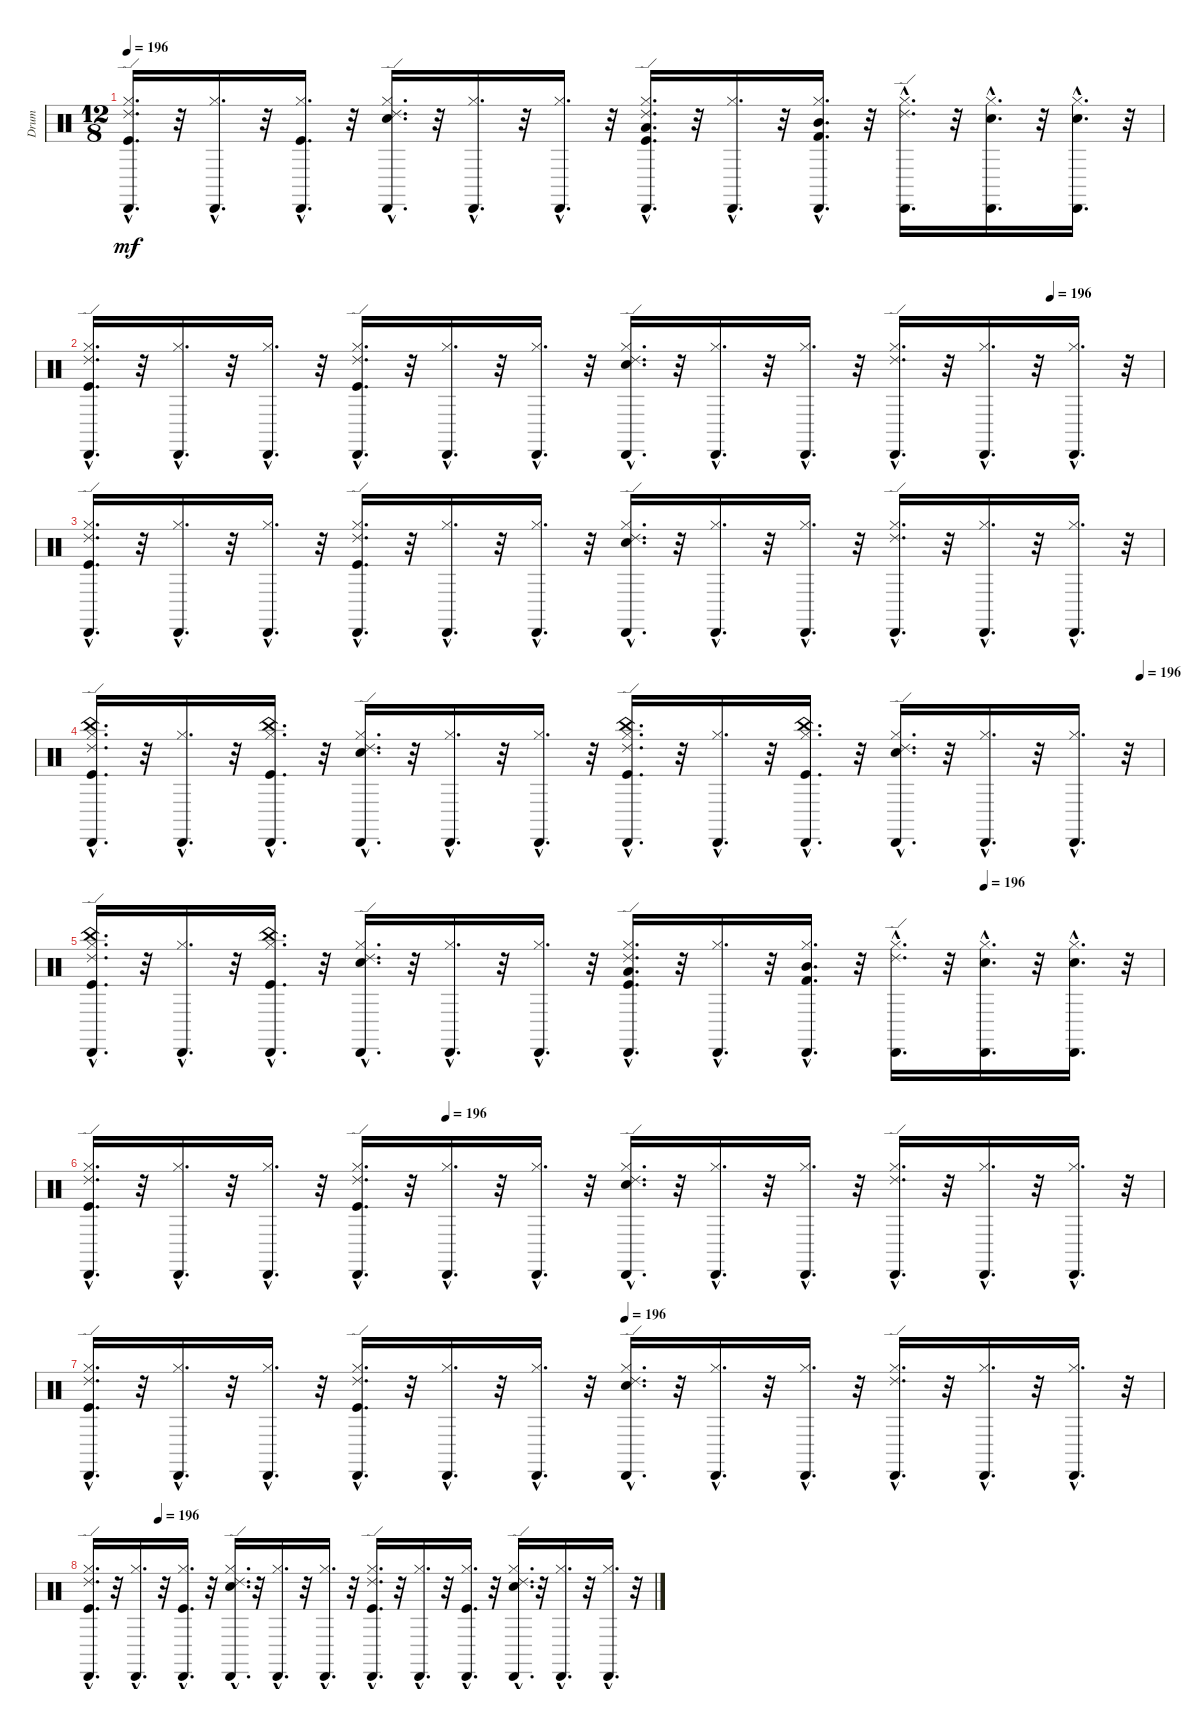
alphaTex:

\track ("Drum" "Drum") {instrument percussion}
\staff {score}
\articulation defaults
\ts (12 8)
\tempo 196
\clef neutral
\ks c
("Hi-Hat (closed)"{hac} "Kick (hit)"{hac} "Cabasa (hit)"{hac} "Ride (edge) 2"{hac}).16{d dy mf} r.32 ("Hi-Hat (closed)"{hac} "Cabasa (hit)"{hac}).16{d} r.32 ("Kick (hit)"{hac} "Hi-Hat (closed)"{hac} "Cabasa (hit)"{hac}).16{d} r.32 ("Snare (hit) 2"{hac} "Hi-Hat (closed)"{hac} "Cabasa (hit)"{hac} "Ride (edge) 2"{hac}).16{d} r.32 ("Hi-Hat (closed)"{hac} "Cabasa (hit)"{hac}).16{d} r.32 ("Hi-Hat (closed)"{hac} "Cabasa (hit)"{hac}).16{d} r.32 ("Low Tom (hit)"{hac} "Kick (hit)"{hac} "Hi-Hat (closed)"{hac} "Cabasa (hit)"{hac} "Ride (edge) 2"{hac}).16{d} r.32 ("Hi-Hat (closed)"{hac} "Cabasa (hit)"{hac}).16{d} r.32 ("Mid Tom (hit)"{hac} "Kick (hit) 2"{hac} "Hi-Hat (closed)"{hac} "Cabasa (hit)"{hac}).16{d} r.32 ("Hi-Hat (closed)"{hac} "Cabasa (hit)"{hac} "Ride (edge) 2"{hac}).16{d} r.32 ("Snare (hit) 2"{hac} "Hi-Hat (closed)"{hac} "Cabasa (hit)"{hac}).16{d} r.32 ("Snare (hit) 2"{hac} "Hi-Hat (closed)"{hac} "Cabasa (hit)"{hac}).16{d} r.32 |
\tempo (196 0.8958333333333334)
("Ride (edge) 2"{hac} "Cabasa (hit)"{hac} "Kick (hit)"{hac} "Hi-Hat (closed)"{hac}).16{d} r.32 ("Cabasa (hit)"{hac} "Hi-Hat (closed)"{hac}).16{d} r.32 ("Cabasa (hit)"{hac} "Hi-Hat (closed)"{hac}).16{d} r.32 ("Ride (edge) 2"{hac} "Cabasa (hit)"{hac} "Kick (hit)"{hac} "Hi-Hat (closed)"{hac}).16{d} r.32 ("Cabasa (hit)"{hac} "Hi-Hat (closed)"{hac}).16{d} r.32 ("Cabasa (hit)"{hac} "Hi-Hat (closed)"{hac}).16{d} r.32 ("Ride (edge) 2"{hac} "Cabasa (hit)"{hac} "Snare (hit) 2"{hac} "Hi-Hat (closed)"{hac}).16{d} r.32 ("Cabasa (hit)"{hac} "Hi-Hat (closed)"{hac}).16{d} r.32 ("Cabasa (hit)"{hac} "Hi-Hat (closed)"{hac}).16{d} r.32 ("Ride (edge) 2"{hac} "Cabasa (hit)"{hac} "Hi-Hat (closed)"{hac}).16{d} r.32 ("Cabasa (hit)"{hac} "Hi-Hat (closed)"{hac}).16{d} r.32 ("Cabasa (hit)"{hac} "Hi-Hat (closed)"{hac}).16{d} r.32 |
("Ride (edge) 2"{hac} "Hi-Hat (closed)"{hac} "Cabasa (hit)"{hac} "Kick (hit)"{hac}).16{d} r.32 ("Cabasa (hit)"{hac} "Hi-Hat (closed)"{hac}).16{d} r.32 ("Hi-Hat (closed)"{hac} "Cabasa (hit)"{hac}).16{d} r.32 ("Cabasa (hit)"{hac} "Hi-Hat (closed)"{hac} "Ride (edge) 2"{hac} "Kick (hit)"{hac}).16{d} r.32 ("Hi-Hat (closed)"{hac} "Cabasa (hit)"{hac}).16{d} r.32 ("Hi-Hat (closed)"{hac} "Cabasa (hit)"{hac}).16{d} r.32 ("Ride (edge) 2"{hac} "Cabasa (hit)"{hac} "Snare (hit) 2"{hac} "Hi-Hat (closed)"{hac}).16{d} r.32 ("Hi-Hat (closed)"{hac} "Cabasa (hit)"{hac}).16{d} r.32 ("Cabasa (hit)"{hac} "Hi-Hat (closed)"{hac}).16{d} r.32 ("Ride (edge) 2"{hac} "Cabasa (hit)"{hac} "Hi-Hat (closed)"{hac}).16{d} r.32 ("Hi-Hat (closed)"{hac} "Cabasa (hit)"{hac}).16{d} r.32 ("Hi-Hat (closed)"{hac} "Cabasa (hit)"{hac}).16{d} r.32 |
\tempo (196 0.9791666666666666)
("Hi-Hat (closed)"{hac} "Kick (hit)"{hac} "Ride (edge) 2"{hac} "Cabasa (hit)"{hac} "China (hit)"{hac}).16{d} r.32 ("Hi-Hat (closed)"{hac} "Cabasa (hit)"{hac}).16{d} r.32 ("Cabasa (hit)"{hac} "Kick (hit)"{hac} "China (hit)"{hac} "Hi-Hat (closed)"{hac}).16{d} r.32 ("Snare (hit) 2"{hac} "Hi-Hat (closed)"{hac} "Cabasa (hit)"{hac} "Ride (edge) 2"{hac}).16{d} r.32 ("Hi-Hat (closed)"{hac} "Cabasa (hit)"{hac}).16{d} r.32 ("Hi-Hat (closed)"{hac} "Cabasa (hit)"{hac}).16{d} r.32 ("Hi-Hat (closed)"{hac} "Kick (hit)"{hac} "Cabasa (hit)"{hac} "China (hit)"{hac} "Ride (edge) 2"{hac}).16{d} r.32 ("Cabasa (hit)"{hac} "Hi-Hat (closed)"{hac}).16{d} r.32 ("Cabasa (hit)"{hac} "Kick (hit)"{hac} "China (hit)"{hac} "Hi-Hat (closed)"{hac}).16{d} r.32 ("Snare (hit) 2"{hac} "Hi-Hat (closed)"{hac} "Cabasa (hit)"{hac} "Ride (edge) 2"{hac}).16{d} r.32 ("Hi-Hat (closed)"{hac} "Cabasa (hit)"{hac}).16{d} r.32 ("Cabasa (hit)"{hac} "Hi-Hat (closed)"{hac}).16{d} r.32 |
\tempo (196 0.8333333333333334)
("Cabasa (hit)"{hac} "Ride (edge) 2"{hac} "Kick (hit)"{hac} "Hi-Hat (closed)"{hac} "China (hit)"{hac}).16{d} r.32 ("Cabasa (hit)"{hac} "Hi-Hat (closed)"{hac}).16{d} r.32 ("China (hit)"{hac} "Cabasa (hit)"{hac} "Kick (hit)"{hac} "Hi-Hat (closed)"{hac}).16{d} r.32 ("Snare (hit) 2"{hac} "Cabasa (hit)"{hac} "Hi-Hat (closed)"{hac} "Ride (edge) 2"{hac}).16{d} r.32 ("Cabasa (hit)"{hac} "Hi-Hat (closed)"{hac}).16{d} r.32 ("Hi-Hat (closed)"{hac} "Cabasa (hit)"{hac}).16{d} r.32 ("Low Tom (hit)"{hac} "Cabasa (hit)"{hac} "Hi-Hat (closed)"{hac} "Kick (hit)"{hac} "Ride (edge) 2"{hac}).16{d} r.32 ("Hi-Hat (closed)"{hac} "Cabasa (hit)"{hac}).16{d} r.32 ("Cabasa (hit)"{hac} "Mid Tom (hit)"{hac} "Hi-Hat (closed)"{hac} "Kick (hit) 2"{hac}).16{d} r.32 ("Hi-Hat (closed)"{hac} "Ride (edge) 2"{hac} "Cabasa (hit)"{hac}).16{d} r.32 ("Hi-Hat (closed)"{hac} "Snare (hit) 2"{hac} "Cabasa (hit)"{hac}).16{d} r.32 ("Hi-Hat (closed)"{hac} "Snare (hit) 2"{hac} "Cabasa (hit)"{hac}).16{d} r.32 |
\tempo (196 0.3333333333333333)
("Hi-Hat (closed)"{hac} "Kick (hit)"{hac} "Cabasa (hit)"{hac} "Ride (edge) 2"{hac}).16{d} r.32 ("Hi-Hat (closed)"{hac} "Cabasa (hit)"{hac}).16{d} r.32 ("Hi-Hat (closed)"{hac} "Cabasa (hit)"{hac}).16{d} r.32 ("Hi-Hat (closed)"{hac} "Kick (hit)"{hac} "Cabasa (hit)"{hac} "Ride (edge) 2"{hac}).16{d} r.32 ("Hi-Hat (closed)"{hac} "Cabasa (hit)"{hac}).16{d} r.32 ("Hi-Hat (closed)"{hac} "Cabasa (hit)"{hac}).16{d} r.32 ("Hi-Hat (closed)"{hac} "Snare (hit) 2"{hac} "Cabasa (hit)"{hac} "Ride (edge) 2"{hac}).16{d} r.32 ("Hi-Hat (closed)"{hac} "Cabasa (hit)"{hac}).16{d} r.32 ("Hi-Hat (closed)"{hac} "Cabasa (hit)"{hac}).16{d} r.32 ("Hi-Hat (closed)"{hac} "Cabasa (hit)"{hac} "Ride (edge) 2"{hac}).16{d} r.32 ("Hi-Hat (closed)"{hac} "Cabasa (hit)"{hac}).16{d} r.32 ("Hi-Hat (closed)"{hac} "Cabasa (hit)"{hac}).16{d} r.32 |
\tempo (196 0.5)
("Ride (edge) 2"{hac} "Hi-Hat (closed)"{hac} "Kick (hit)"{hac} "Cabasa (hit)"{hac}).16{d} r.32 ("Cabasa (hit)"{hac} "Hi-Hat (closed)"{hac}).16{d} r.32 ("Cabasa (hit)"{hac} "Hi-Hat (closed)"{hac}).16{d} r.32 ("Kick (hit)"{hac} "Ride (edge) 2"{hac} "Cabasa (hit)"{hac} "Hi-Hat (closed)"{hac}).16{d} r.32 ("Cabasa (hit)"{hac} "Hi-Hat (closed)"{hac}).16{d} r.32 ("Cabasa (hit)"{hac} "Hi-Hat (closed)"{hac}).16{d} r.32 ("Cabasa (hit)"{hac} "Ride (edge) 2"{hac} "Snare (hit) 2"{hac} "Hi-Hat (closed)"{hac}).16{d} r.32 ("Hi-Hat (closed)"{hac} "Cabasa (hit)"{hac}).16{d} r.32 ("Hi-Hat (closed)"{hac} "Cabasa (hit)"{hac}).16{d} r.32 ("Cabasa (hit)"{hac} "Ride (edge) 2"{hac} "Hi-Hat (closed)"{hac}).16{d} r.32 ("Cabasa (hit)"{hac} "Hi-Hat (closed)"{hac}).16{d} r.32 ("Hi-Hat (closed)"{hac} "Cabasa (hit)"{hac}).16{d} r.32 |
\tempo (196 0.125)
("Ride (edge) 2"{hac} "Cabasa (hit)"{hac} "Hi-Hat (closed)"{hac} "Kick (hit)"{hac}).16{d} r.32 ("Cabasa (hit)"{hac} "Hi-Hat (closed)"{hac}).16{d} r.32 ("Kick (hit)"{hac} "Hi-Hat (closed)"{hac} "Cabasa (hit)"{hac}).16{d} r.32 ("Snare (hit) 2"{hac} "Cabasa (hit)"{hac} "Ride (edge) 2"{hac} "Hi-Hat (closed)"{hac}).16{d} r.32 ("Cabasa (hit)"{hac} "Hi-Hat (closed)"{hac}).16{d} r.32 ("Hi-Hat (closed)"{hac} "Cabasa (hit)"{hac}).16{d} r.32 ("Hi-Hat (closed)"{hac} "Cabasa (hit)"{hac} "Ride (edge) 2"{hac} "Kick (hit)"{hac}).16{d} r.32 ("Cabasa (hit)"{hac} "Hi-Hat (closed)"{hac}).16{d} r.32 ("Cabasa (hit)"{hac} "Kick (hit)"{hac} "Hi-Hat (closed)"{hac}).16{d} r.32 ("Snare (hit) 2"{hac} "Ride (edge) 2"{hac} "Cabasa (hit)"{hac} "Hi-Hat (closed)"{hac}).16{d} r.32 ("Cabasa (hit)"{hac} "Hi-Hat (closed)"{hac}).16{d} r.32 ("Cabasa (hit)"{hac} "Hi-Hat (closed)"{hac}).16{d} r.32
